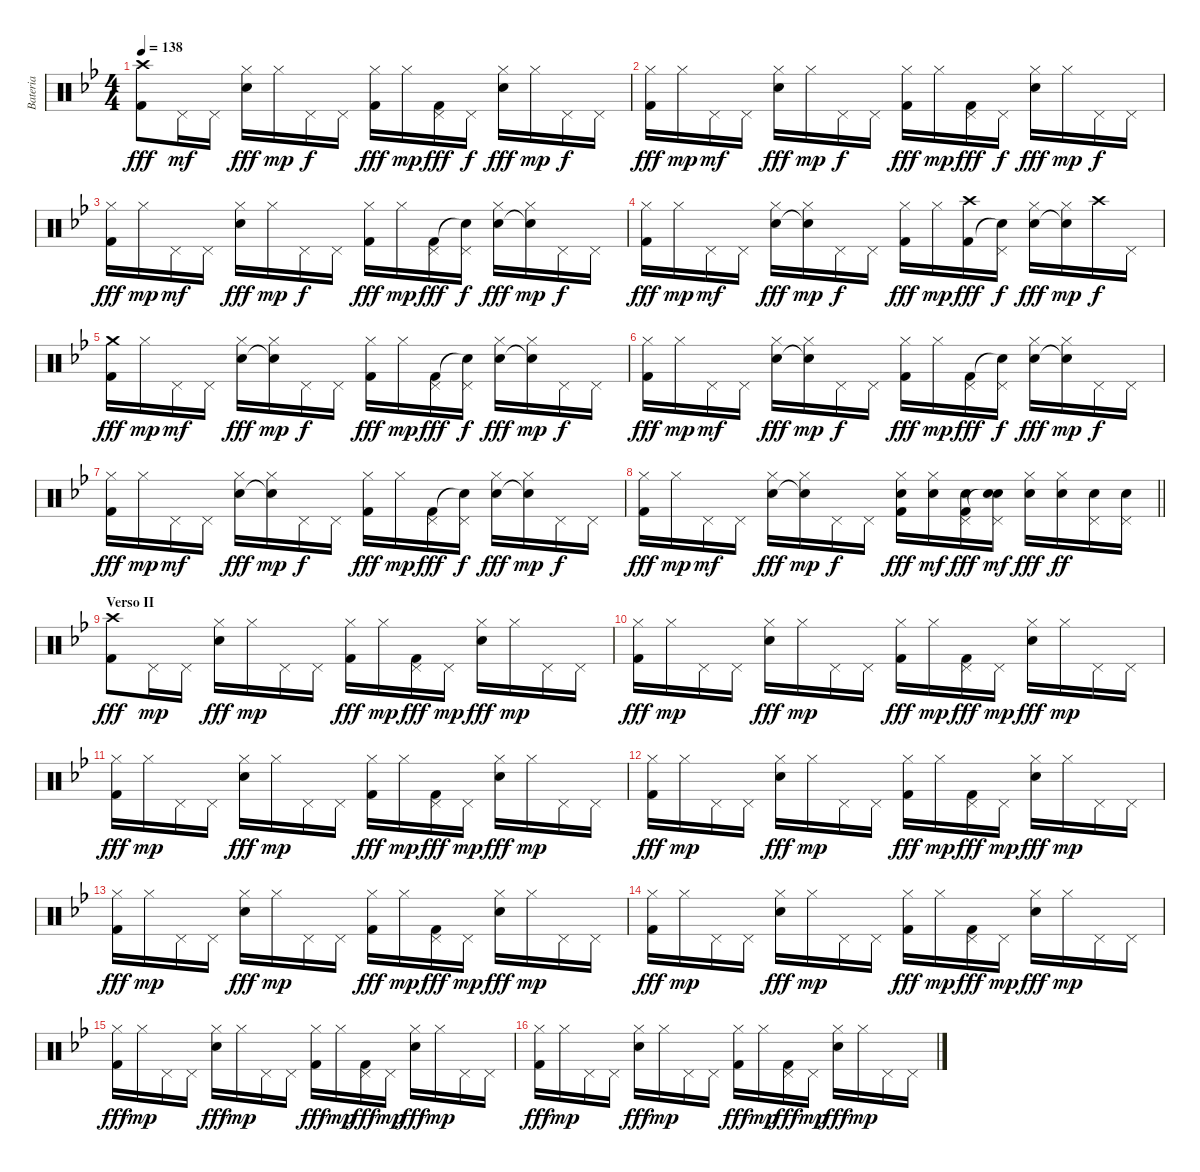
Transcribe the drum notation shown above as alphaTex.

\track ("Bateria" "Bateria") {instrument percussion}
\staff {score}
\articulation defaults
\ts (4 4)
\tempo 138
\clef neutral
\ks bb
("Crash high (hit)" "Kick (hit) 2").8{dy fff} "Pedal Hi-Hat (hit)".16{dy mf} "Pedal Hi-Hat (hit)".16 ("Hi-Hat (closed)" "Snare (hit) 2").16{dy fff} "Hi-Hat (closed)".16{dy mp} "Pedal Hi-Hat (hit)".16{dy f} "Pedal Hi-Hat (hit)".16 ("Hi-Hat (closed)" "Kick (hit) 2").16{dy fff} "Hi-Hat (closed)".16{dy mp} ("Pedal Hi-Hat (hit)" "Kick (hit) 2").16{dy fff} "Pedal Hi-Hat (hit)".16{dy f} ("Hi-Hat (closed)" "Snare (hit) 2").16{dy fff} "Hi-Hat (closed)".16{dy mp} "Pedal Hi-Hat (hit)".16{dy f} "Pedal Hi-Hat (hit)".16 |
("Hi-Hat (closed)" "Kick (hit) 2").16{dy fff} "Hi-Hat (closed)".16{dy mp} "Pedal Hi-Hat (hit)".16{dy mf} "Pedal Hi-Hat (hit)".16 ("Hi-Hat (closed)" "Snare (hit) 2").16{dy fff} "Hi-Hat (closed)".16{dy mp} "Pedal Hi-Hat (hit)".16{dy f} "Pedal Hi-Hat (hit)".16 ("Hi-Hat (closed)" "Kick (hit) 2").16{dy fff} "Hi-Hat (closed)".16{dy mp} ("Pedal Hi-Hat (hit)" "Kick (hit) 2").16{dy fff} "Pedal Hi-Hat (hit)".16{dy f} ("Hi-Hat (closed)" "Snare (hit) 2").16{dy fff} "Hi-Hat (closed)".16{dy mp} "Pedal Hi-Hat (hit)".16{dy f} "Pedal Hi-Hat (hit)".16 |
("Hi-Hat (closed)" "Kick (hit) 2").16{dy fff} "Hi-Hat (closed)".16{dy mp} "Pedal Hi-Hat (hit)".16{dy mf} "Pedal Hi-Hat (hit)".16 ("Hi-Hat (closed)" "Snare (hit) 2").16{dy fff} "Hi-Hat (closed)".16{dy mp} "Pedal Hi-Hat (hit)".16{dy f} "Pedal Hi-Hat (hit)".16 ("Hi-Hat (closed)" "Kick (hit) 2").16{dy fff} "Hi-Hat (closed)".16{dy mp} ("Pedal Hi-Hat (hit)" "Kick (hit) 2").16{dy fff} ("Pedal Hi-Hat (hit)" "Snare (hit)"{t}).16{dy f} ("Hi-Hat (closed)" "Snare (hit) 2").16{dy fff} ("Hi-Hat (closed)" "Snare (hit)"{t}).16{dy mp} "Pedal Hi-Hat (hit)".16{dy f} "Pedal Hi-Hat (hit)".16 |
("Hi-Hat (closed)" "Kick (hit) 2").16{dy fff} "Hi-Hat (closed)".16{dy mp} "Pedal Hi-Hat (hit)".16{dy mf} "Pedal Hi-Hat (hit)".16 ("Hi-Hat (closed)" "Snare (hit) 2").16{dy fff} ("Hi-Hat (closed)" "Snare (hit)"{t}).16{dy mp} "Pedal Hi-Hat (hit)".16{dy f} "Pedal Hi-Hat (hit)".16 ("Hi-Hat (closed)" "Kick (hit) 2").16{dy fff} "Hi-Hat (closed)".16{dy mp} ("Crash high (hit)" "Kick (hit) 2").16{dy fff} ("Pedal Hi-Hat (hit)" "Snare (hit)"{t}).16{dy f} ("Hi-Hat (closed)" "Snare (hit) 2").16{dy fff} ("Hi-Hat (closed)" "Snare (hit)"{t}).16{dy mp} "Crash high (hit)".16{dy f} "Pedal Hi-Hat (hit)".16 |
("Crash medium (hit)" "Kick (hit) 2").16{dy fff} "Hi-Hat (closed)".16{dy mp} "Pedal Hi-Hat (hit)".16{dy mf} "Pedal Hi-Hat (hit)".16 ("Hi-Hat (closed)" "Snare (hit) 2").16{dy fff} ("Hi-Hat (closed)" "Snare (hit)"{t}).16{dy mp} "Pedal Hi-Hat (hit)".16{dy f} "Pedal Hi-Hat (hit)".16 ("Hi-Hat (closed)" "Kick (hit) 2").16{dy fff} "Hi-Hat (closed)".16{dy mp} ("Pedal Hi-Hat (hit)" "Kick (hit) 2").16{dy fff} ("Pedal Hi-Hat (hit)" "Snare (hit)"{t}).16{dy f} ("Hi-Hat (closed)" "Snare (hit) 2").16{dy fff} ("Hi-Hat (closed)" "Snare (hit)"{t}).16{dy mp} "Pedal Hi-Hat (hit)".16{dy f} "Pedal Hi-Hat (hit)".16 |
("Hi-Hat (closed)" "Kick (hit) 2").16{dy fff} "Hi-Hat (closed)".16{dy mp} "Pedal Hi-Hat (hit)".16{dy mf} "Pedal Hi-Hat (hit)".16 ("Hi-Hat (closed)" "Snare (hit) 2").16{dy fff} ("Hi-Hat (closed)" "Snare (hit)"{t}).16{dy mp} "Pedal Hi-Hat (hit)".16{dy f} "Pedal Hi-Hat (hit)".16 ("Hi-Hat (closed)" "Kick (hit) 2").16{dy fff} "Hi-Hat (closed)".16{dy mp} ("Pedal Hi-Hat (hit)" "Kick (hit) 2").16{dy fff} ("Pedal Hi-Hat (hit)" "Snare (hit)"{t}).16{dy f} ("Hi-Hat (closed)" "Snare (hit) 2").16{dy fff} ("Hi-Hat (closed)" "Snare (hit)"{t}).16{dy mp} "Pedal Hi-Hat (hit)".16{dy f} "Pedal Hi-Hat (hit)".16 |
("Hi-Hat (closed)" "Kick (hit) 2").16{dy fff} "Hi-Hat (closed)".16{dy mp} "Pedal Hi-Hat (hit)".16{dy mf} "Pedal Hi-Hat (hit)".16 ("Hi-Hat (closed)" "Snare (hit) 2").16{dy fff} ("Hi-Hat (closed)" "Snare (hit)"{t}).16{dy mp} "Pedal Hi-Hat (hit)".16{dy f} "Pedal Hi-Hat (hit)".16 ("Hi-Hat (closed)" "Kick (hit) 2").16{dy fff} "Hi-Hat (closed)".16{dy mp} ("Pedal Hi-Hat (hit)" "Kick (hit) 2").16{dy fff} ("Pedal Hi-Hat (hit)" "Snare (hit)"{t}).16{dy f} ("Hi-Hat (closed)" "Snare (hit) 2").16{dy fff} ("Hi-Hat (closed)" "Snare (hit)"{t}).16{dy mp} "Pedal Hi-Hat (hit)".16{dy f} "Pedal Hi-Hat (hit)".16 |
\barLineRight lightlight
("Hi-Hat (closed)" "Kick (hit) 2").16{dy fff} "Hi-Hat (closed)".16{dy mp} "Pedal Hi-Hat (hit)".16{dy mf} "Pedal Hi-Hat (hit)".16 ("Hi-Hat (closed)" "Snare (hit) 2").16{dy fff} ("Hi-Hat (closed)" "Snare (hit)"{t}).16{dy mp} "Pedal Hi-Hat (hit)".16{dy f} "Pedal Hi-Hat (hit)".16 ("Hi-Hat (closed)" "Snare (hit) 2" "Kick (hit) 2").16{dy fff} ("Hi-Hat (closed)" "Snare (hit) 2").16{dy mf} ("Pedal Hi-Hat (hit)" "Snare (hit) 2" "Kick (hit) 2").16{dy fff} ("Pedal Hi-Hat (hit)" "Snare (hit) 2" "Snare (hit)"{t}).16{dy mf} ("Hi-Hat (closed)" "Electric Snare (hit)").16{dy fff} ("Hi-Hat (closed)" "Electric Snare (hit)").16{dy ff} ("Pedal Hi-Hat (hit)" "Electric Snare (hit)").16 ("Pedal Hi-Hat (hit)" "Electric Snare (hit)").16 |
\section ("" "Verso II")
("Crash high (hit)" "Kick (hit) 2").8{dy fff} "Pedal Hi-Hat (hit)".16{dy mp} "Pedal Hi-Hat (hit)".16 ("Hi-Hat (closed)" "Snare (hit) 2").16{dy fff} "Hi-Hat (closed)".16{dy mp} "Pedal Hi-Hat (hit)".16 "Pedal Hi-Hat (hit)".16 ("Hi-Hat (closed)" "Kick (hit) 2").16{dy fff} "Hi-Hat (closed)".16{dy mp} ("Pedal Hi-Hat (hit)" "Kick (hit) 2").16{dy fff} "Pedal Hi-Hat (hit)".16{dy mp} ("Hi-Hat (closed)" "Snare (hit) 2").16{dy fff} "Hi-Hat (closed)".16{dy mp} "Pedal Hi-Hat (hit)".16 "Pedal Hi-Hat (hit)".16 |
("Hi-Hat (closed)" "Kick (hit) 2").16{dy fff} "Hi-Hat (closed)".16{dy mp} "Pedal Hi-Hat (hit)".16 "Pedal Hi-Hat (hit)".16 ("Hi-Hat (closed)" "Snare (hit) 2").16{dy fff} "Hi-Hat (closed)".16{dy mp} "Pedal Hi-Hat (hit)".16 "Pedal Hi-Hat (hit)".16 ("Hi-Hat (closed)" "Kick (hit) 2").16{dy fff} "Hi-Hat (closed)".16{dy mp} ("Pedal Hi-Hat (hit)" "Kick (hit) 2").16{dy fff} "Pedal Hi-Hat (hit)".16{dy mp} ("Hi-Hat (closed)" "Snare (hit) 2").16{dy fff} "Hi-Hat (closed)".16{dy mp} "Pedal Hi-Hat (hit)".16 "Pedal Hi-Hat (hit)".16 |
("Hi-Hat (closed)" "Kick (hit) 2").16{dy fff} "Hi-Hat (closed)".16{dy mp} "Pedal Hi-Hat (hit)".16 "Pedal Hi-Hat (hit)".16 ("Hi-Hat (closed)" "Snare (hit) 2").16{dy fff} "Hi-Hat (closed)".16{dy mp} "Pedal Hi-Hat (hit)".16 "Pedal Hi-Hat (hit)".16 ("Hi-Hat (closed)" "Kick (hit) 2").16{dy fff} "Hi-Hat (closed)".16{dy mp} ("Pedal Hi-Hat (hit)" "Kick (hit) 2").16{dy fff} "Pedal Hi-Hat (hit)".16{dy mp} ("Hi-Hat (closed)" "Snare (hit) 2").16{dy fff} "Hi-Hat (closed)".16{dy mp} "Pedal Hi-Hat (hit)".16 "Pedal Hi-Hat (hit)".16 |
("Hi-Hat (closed)" "Kick (hit) 2").16{dy fff} "Hi-Hat (closed)".16{dy mp} "Pedal Hi-Hat (hit)".16 "Pedal Hi-Hat (hit)".16 ("Hi-Hat (closed)" "Snare (hit) 2").16{dy fff} "Hi-Hat (closed)".16{dy mp} "Pedal Hi-Hat (hit)".16 "Pedal Hi-Hat (hit)".16 ("Hi-Hat (closed)" "Kick (hit) 2").16{dy fff} "Hi-Hat (closed)".16{dy mp} ("Pedal Hi-Hat (hit)" "Kick (hit) 2").16{dy fff} "Pedal Hi-Hat (hit)".16{dy mp} ("Hi-Hat (closed)" "Snare (hit) 2").16{dy fff} "Hi-Hat (closed)".16{dy mp} "Pedal Hi-Hat (hit)".16 "Pedal Hi-Hat (hit)".16 |
("Hi-Hat (closed)" "Kick (hit) 2").16{dy fff} "Hi-Hat (closed)".16{dy mp} "Pedal Hi-Hat (hit)".16 "Pedal Hi-Hat (hit)".16 ("Hi-Hat (closed)" "Snare (hit) 2").16{dy fff} "Hi-Hat (closed)".16{dy mp} "Pedal Hi-Hat (hit)".16 "Pedal Hi-Hat (hit)".16 ("Hi-Hat (closed)" "Kick (hit) 2").16{dy fff} "Hi-Hat (closed)".16{dy mp} ("Pedal Hi-Hat (hit)" "Kick (hit) 2").16{dy fff} "Pedal Hi-Hat (hit)".16{dy mp} ("Hi-Hat (closed)" "Snare (hit) 2").16{dy fff} "Hi-Hat (closed)".16{dy mp} "Pedal Hi-Hat (hit)".16 "Pedal Hi-Hat (hit)".16 |
("Hi-Hat (closed)" "Kick (hit) 2").16{dy fff} "Hi-Hat (closed)".16{dy mp} "Pedal Hi-Hat (hit)".16 "Pedal Hi-Hat (hit)".16 ("Hi-Hat (closed)" "Snare (hit) 2").16{dy fff} "Hi-Hat (closed)".16{dy mp} "Pedal Hi-Hat (hit)".16 "Pedal Hi-Hat (hit)".16 ("Hi-Hat (closed)" "Kick (hit) 2").16{dy fff} "Hi-Hat (closed)".16{dy mp} ("Pedal Hi-Hat (hit)" "Kick (hit) 2").16{dy fff} "Pedal Hi-Hat (hit)".16{dy mp} ("Hi-Hat (closed)" "Snare (hit) 2").16{dy fff} "Hi-Hat (closed)".16{dy mp} "Pedal Hi-Hat (hit)".16 "Pedal Hi-Hat (hit)".16 |
("Hi-Hat (closed)" "Kick (hit) 2").16{dy fff} "Hi-Hat (closed)".16{dy mp} "Pedal Hi-Hat (hit)".16 "Pedal Hi-Hat (hit)".16 ("Hi-Hat (closed)" "Snare (hit) 2").16{dy fff} "Hi-Hat (closed)".16{dy mp} "Pedal Hi-Hat (hit)".16 "Pedal Hi-Hat (hit)".16 ("Hi-Hat (closed)" "Kick (hit) 2").16{dy fff} "Hi-Hat (closed)".16{dy mp} ("Pedal Hi-Hat (hit)" "Kick (hit) 2").16{dy fff} "Pedal Hi-Hat (hit)".16{dy mp} ("Hi-Hat (closed)" "Snare (hit) 2").16{dy fff} "Hi-Hat (closed)".16{dy mp} "Pedal Hi-Hat (hit)".16 "Pedal Hi-Hat (hit)".16 |
("Hi-Hat (closed)" "Kick (hit) 2").16{dy fff} "Hi-Hat (closed)".16{dy mp} "Pedal Hi-Hat (hit)".16 "Pedal Hi-Hat (hit)".16 ("Hi-Hat (closed)" "Snare (hit) 2").16{dy fff} "Hi-Hat (closed)".16{dy mp} "Pedal Hi-Hat (hit)".16 "Pedal Hi-Hat (hit)".16 ("Hi-Hat (closed)" "Kick (hit) 2").16{dy fff} "Hi-Hat (closed)".16{dy mp} ("Pedal Hi-Hat (hit)" "Kick (hit) 2").16{dy fff} "Pedal Hi-Hat (hit)".16{dy mp} ("Hi-Hat (closed)" "Snare (hit) 2").16{dy fff} "Hi-Hat (closed)".16{dy mp} "Pedal Hi-Hat (hit)".16 "Pedal Hi-Hat (hit)".16
